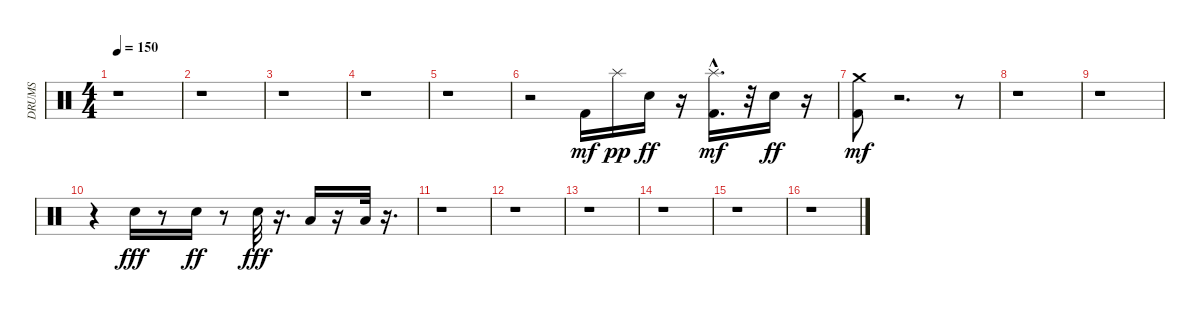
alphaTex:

\track ("DRUMS" "DRUMS") {instrument percussion}
\staff {score}
\articulation defaults
\ts (4 4)
\tempo 150
\clef neutral
\ks c
r.1{dy mf} |
r.1 |
r.1 |
r.1 |
r.1 |
r.2 "Kick (hit) 2".16 "Splash (hit)".16{dy pp} "Snare (hit) 2".16{dy ff} r.16 ("Kick (hit) 2"{hac} "Splash (hit)"{hac}).16{d dy mf} r.32 "Snare (hit) 2".16{dy ff} r.16 |
("Kick (hit) 2" "Crash medium (hit)").8{dy mf} r.2{d} r.8 |
r.1 |
r.1 |
r.4 "Electric Snare (hit)".16{dy fff} r.8 "Electric Snare (hit)".16{dy ff} r.8 "Electric Snare (hit)".32{dy fff} r.16{d} "Low Tom (hit)".16 r.16 "Low Floor Tom (hit)".32 r.16{d} |
r.1 |
r.1 |
r.1 |
r.1 |
r.1 |
r.1
